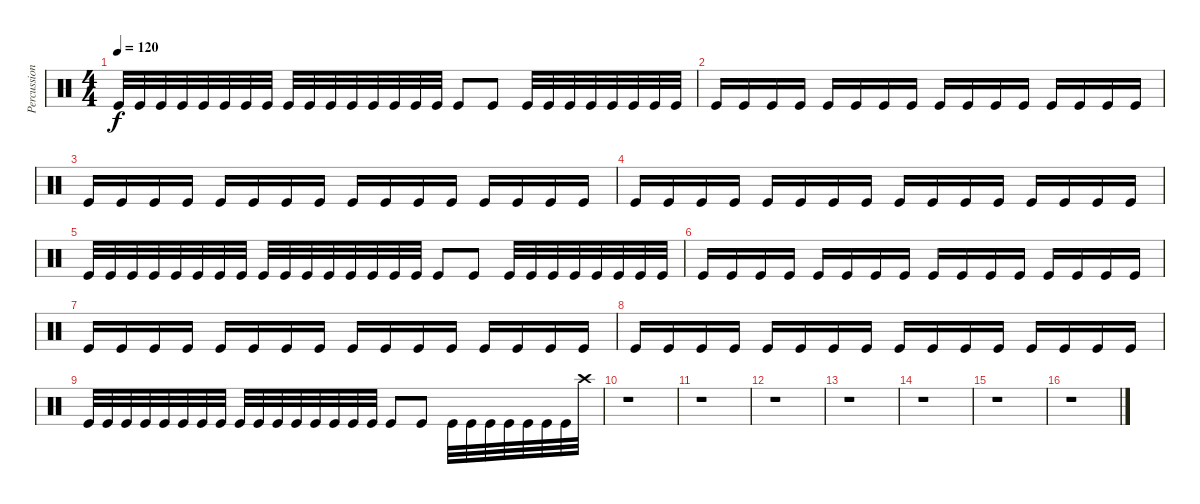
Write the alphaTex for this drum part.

\track ("Percussion" "Percussion") {instrument percussion}
\staff {score}
\articulation defaults
\ts (4 4)
\tempo 120
\clef neutral
\ks c "Kick (hit)".32{dy f} "Kick (hit)".32 "Kick (hit)".32 "Kick (hit)".32 "Kick (hit)".32 "Kick (hit)".32 "Kick (hit)".32 "Kick (hit)".32 "Kick (hit)".32 "Kick (hit)".32 "Kick (hit)".32 "Kick (hit)".32 "Kick (hit)".32 "Kick (hit)".32 "Kick (hit)".32 "Kick (hit)".32 "Kick (hit)".8 "Kick (hit)".8 "Kick (hit)".32 "Kick (hit)".32 "Kick (hit)".32 "Kick (hit)".32 "Kick (hit)".32 "Kick (hit)".32 "Kick (hit)".32 "Kick (hit)".32
|
"Kick (hit)".16 "Kick (hit)".16 "Kick (hit)".16 "Kick (hit)".16 "Kick (hit)".16 "Kick (hit)".16 "Kick (hit)".16 "Kick (hit)".16 "Kick (hit)".16 "Kick (hit)".16 "Kick (hit)".16 "Kick (hit)".16 "Kick (hit)".16 "Kick (hit)".16 "Kick (hit)".16 "Kick (hit)".16 |
"Kick (hit)".16 "Kick (hit)".16 "Kick (hit)".16 "Kick (hit)".16 "Kick (hit)".16 "Kick (hit)".16 "Kick (hit)".16 "Kick (hit)".16 "Kick (hit)".16 "Kick (hit)".16 "Kick (hit)".16 "Kick (hit)".16 "Kick (hit)".16 "Kick (hit)".16 "Kick (hit)".16 "Kick (hit)".16 |
"Kick (hit)".16 "Kick (hit)".16 "Kick (hit)".16 "Kick (hit)".16 "Kick (hit)".16 "Kick (hit)".16 "Kick (hit)".16 "Kick (hit)".16 "Kick (hit)".16 "Kick (hit)".16 "Kick (hit)".16 "Kick (hit)".16 "Kick (hit)".16 "Kick (hit)".16 "Kick (hit)".16 "Kick (hit)".16 |
"Kick (hit)".32 "Kick (hit)".32 "Kick (hit)".32 "Kick (hit)".32 "Kick (hit)".32 "Kick (hit)".32 "Kick (hit)".32 "Kick (hit)".32 "Kick (hit)".32 "Kick (hit)".32 "Kick (hit)".32 "Kick (hit)".32 "Kick (hit)".32 "Kick (hit)".32 "Kick (hit)".32 "Kick (hit)".32 "Kick (hit)".8 "Kick (hit)".8 "Kick (hit)".32 "Kick (hit)".32 "Kick (hit)".32 "Kick (hit)".32 "Kick (hit)".32 "Kick (hit)".32 "Kick (hit)".32 "Kick (hit)".32 |
"Kick (hit)".16 "Kick (hit)".16 "Kick (hit)".16 "Kick (hit)".16 "Kick (hit)".16 "Kick (hit)".16 "Kick (hit)".16 "Kick (hit)".16 "Kick (hit)".16 "Kick (hit)".16 "Kick (hit)".16 "Kick (hit)".16 "Kick (hit)".16 "Kick (hit)".16 "Kick (hit)".16 "Kick (hit)".16 |
"Kick (hit)".16 "Kick (hit)".16 "Kick (hit)".16 "Kick (hit)".16 "Kick (hit)".16 "Kick (hit)".16 "Kick (hit)".16 "Kick (hit)".16 "Kick (hit)".16 "Kick (hit)".16 "Kick (hit)".16 "Kick (hit)".16 "Kick (hit)".16 "Kick (hit)".16 "Kick (hit)".16 "Kick (hit)".16 |
"Kick (hit)".16 "Kick (hit)".16 "Kick (hit)".16 "Kick (hit)".16 "Kick (hit)".16 "Kick (hit)".16 "Kick (hit)".16 "Kick (hit)".16 "Kick (hit)".16 "Kick (hit)".16 "Kick (hit)".16 "Kick (hit)".16 "Kick (hit)".16 "Kick (hit)".16 "Kick (hit)".16 "Kick (hit)".16 |
"Kick (hit)".32 "Kick (hit)".32 "Kick (hit)".32 "Kick (hit)".32 "Kick (hit)".32 "Kick (hit)".32 "Kick (hit)".32 "Kick (hit)".32 "Kick (hit)".32 "Kick (hit)".32 "Kick (hit)".32 "Kick (hit)".32 "Kick (hit)".32 "Kick (hit)".32 "Kick (hit)".32 "Kick (hit)".32 "Kick (hit)".8 "Kick (hit)".8 "Kick (hit)".32 "Kick (hit)".32 "Kick (hit)".32 "Kick (hit)".32 "Kick (hit)".32 "Kick (hit)".32 "Kick (hit)".32 "Crash high (hit)".32 |
r.1 |
r.1 |
r.1 |
r.1 |
r.1 |
r.1 |
r.1
